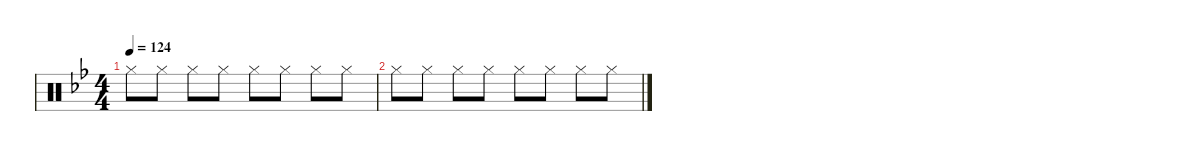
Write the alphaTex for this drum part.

\defaultSystemsLayout 4
\hideDynamics
\bracketExtendMode nobrackets
\singleTrackTrackNamePolicy hidden
\multiTrackTrackNamePolicy hidden
\firstSystemTrackNameMode fullname
\otherSystemsTrackNameOrientation horizontal
\track ("Percussion" "drm.") {defaultSystemsLayout 4 instrument percussion}
\staff {score}
\articulation defaults
\ts (4 4)
\tempo 124
\clef neutral
\ks gminor "Hi-Hat (closed)"{acc forcenatural}.8{dy f beam Down} "Hi-Hat (closed)"{acc forcenatural}.8{beam Down} "Hi-Hat (closed)"{acc forcenatural}.8{beam Down} "Hi-Hat (closed)"{acc forcenatural}.8{beam Down} "Hi-Hat (closed)"{acc forcenatural}.8{beam Down} "Hi-Hat (closed)"{acc forcenatural}.8{beam Down} "Hi-Hat (closed)"{acc forcenatural}.8{beam Down} "Hi-Hat (closed)"{acc forcenatural}.8{beam Down}
|
"Hi-Hat (closed)"{acc forcenatural}.8{beam Down} "Hi-Hat (closed)"{acc forcenatural}.8{beam Down} "Hi-Hat (closed)"{acc forcenatural}.8{beam Down} "Hi-Hat (closed)"{acc forcenatural}.8{beam Down} "Hi-Hat (closed)"{acc forcenatural}.8{beam Down} "Hi-Hat (closed)"{acc forcenatural}.8{beam Down} "Hi-Hat (closed)"{acc forcenatural}.8{beam Down} "Hi-Hat (closed)"{acc forcenatural}.8{beam Down}
